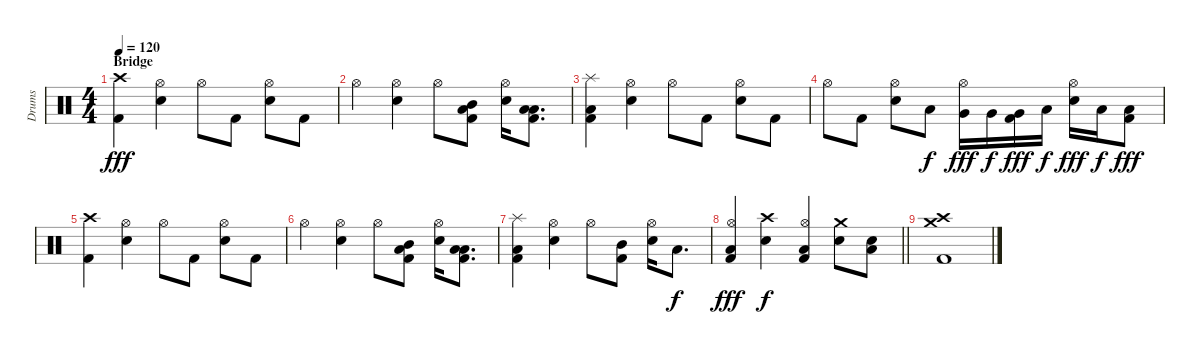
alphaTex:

\track ("Drums" "Drums") {instrument percussion}
\staff {score}
\articulation defaults
\ts (4 4)
\section ("" "Bridge")
\tempo 120
\clef neutral
\ks c
("Crash high (hit)" "Kick (hit) 2").4{dy fff} ("Hi-Hat (open)" "Snare (hit) 2").4 "Hi-Hat (open)".8 "Kick (hit) 2".8 ("Hi-Hat (open)" "Snare (hit) 2").8 "Kick (hit) 2".8 |
"Hi-Hat (open)".4 ("Hi-Hat (open)" "Snare (hit) 2").4 "Hi-Hat (open)".8 ("Mid Tom (hit)" "Low Floor Tom (hit)" "Kick (hit) 2").8 ("Hi-Hat (open)" "Snare (hit) 2").16 ("Low Tom (hit)" "Low Floor Tom (hit)" "Kick (hit) 2").8{d} |
("Splash (hit)" "Low Floor Tom (hit)" "Kick (hit) 2").4 ("Hi-Hat (open)" "Snare (hit) 2").4 "Hi-Hat (open)".8 "Kick (hit) 2".8 ("Hi-Hat (open)" "Snare (hit) 2").8 "Kick (hit) 2".8 |
"Hi-Hat (open)".8 "Kick (hit) 2".8 ("Hi-Hat (open)" "Snare (hit) 2").8 "Low Tom (hit)".8{dy f} ("Hi-Hat (open)" "Very Low Tom (hit)").16{dy fff} "Very Low Tom (hit)".16{dy f} ("Very Low Tom (hit)" "Kick (hit) 2").16{dy fff} "Low Floor Tom (hit)".16{dy f} ("Hi-Hat (open)" "Snare (hit) 2").16{dy fff} "Low Floor Tom (hit)".16{dy f} ("Low Floor Tom (hit)" "Kick (hit) 2").8{dy fff} |
("Crash high (hit)" "Kick (hit) 2").4 ("Hi-Hat (open)" "Snare (hit) 2").4 "Hi-Hat (open)".8 "Kick (hit) 2".8 ("Hi-Hat (open)" "Snare (hit) 2").8 "Kick (hit) 2".8 |
"Hi-Hat (open)".4 ("Hi-Hat (open)" "Snare (hit) 2").4 "Hi-Hat (open)".8 ("Mid Tom (hit)" "Low Floor Tom (hit)" "Kick (hit) 2").8 ("Hi-Hat (open)" "Snare (hit) 2").16 ("Low Tom (hit)" "Low Floor Tom (hit)" "Kick (hit) 2").8{d} |
("Splash (hit)" "Low Floor Tom (hit)" "Kick (hit) 2").4 ("Hi-Hat (open)" "Snare (hit) 2").4 "Hi-Hat (open)".8 ("Mid Tom (hit)" "Kick (hit) 2").8 ("Hi-Hat (open)" "Snare (hit) 2").16 "Low Tom (hit)".8{d dy f} |
\barLineRight lightlight
("Hi-Hat (open)" "Low Floor Tom (hit)" "Kick (hit) 2").4{dy fff} ("Crash high (hit)" "Snare (hit) 2").4{dy f} ("Hi-Hat (open)" "Low Floor Tom (hit)" "Kick (hit) 2").4 ("Crash medium (hit)" "Snare (hit) 2").8 ("Low Floor Tom (hit)" "Snare (hit) 2").8 |
("Crash high (hit)" "Crash medium (hit)" "Kick (hit) 2").1
